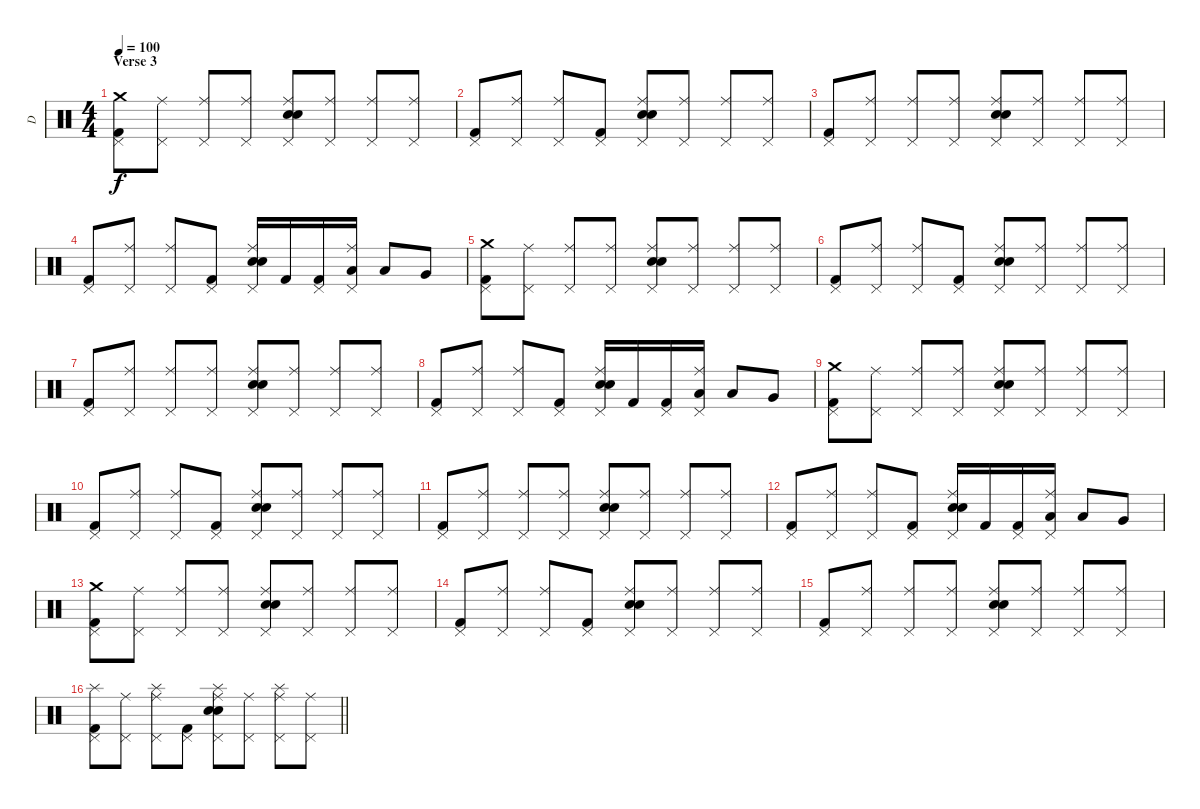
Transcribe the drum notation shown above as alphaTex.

\track ("D" "D") {instrument percussion}
\staff {score}
\articulation defaults
\ts (4 4)
\section ("" "Verse 3")
\tempo 100
\clef neutral
\ks c
("Crash medium (hit)" "Kick (hit) 2" "Pedal Hi-Hat (hit)").8{dy f} ("Ride (middle)" "Pedal Hi-Hat (hit)").8 ("Ride (middle)" "Pedal Hi-Hat (hit)").8 ("Ride (middle)" "Pedal Hi-Hat (hit)").8 ("Electric Snare (hit)" "Electric Snare (hit)" "Ride (middle)" "Pedal Hi-Hat (hit)").8 ("Ride (middle)" "Pedal Hi-Hat (hit)").8 ("Ride (middle)" "Pedal Hi-Hat (hit)").8 ("Ride (middle)" "Pedal Hi-Hat (hit)").8 |
("Kick (hit) 2" "Pedal Hi-Hat (hit)").8 ("Ride (middle)" "Pedal Hi-Hat (hit)").8 ("Ride (middle)" "Pedal Hi-Hat (hit)").8 ("Kick (hit) 2" "Pedal Hi-Hat (hit)").8 ("Electric Snare (hit)" "Electric Snare (hit)" "Ride (middle)" "Pedal Hi-Hat (hit)").8 ("Ride (middle)" "Pedal Hi-Hat (hit)").8 ("Ride (middle)" "Pedal Hi-Hat (hit)").8 ("Ride (middle)" "Pedal Hi-Hat (hit)").8 |
("Kick (hit) 2" "Pedal Hi-Hat (hit)").8 ("Ride (middle)" "Pedal Hi-Hat (hit)").8 ("Ride (middle)" "Pedal Hi-Hat (hit)").8 ("Ride (middle)" "Pedal Hi-Hat (hit)").8 ("Electric Snare (hit)" "Electric Snare (hit)" "Ride (middle)" "Pedal Hi-Hat (hit)").8 ("Ride (middle)" "Pedal Hi-Hat (hit)").8 ("Ride (middle)" "Pedal Hi-Hat (hit)").8 ("Ride (middle)" "Pedal Hi-Hat (hit)").8 |
("Kick (hit) 2" "Pedal Hi-Hat (hit)").8 ("Ride (middle)" "Pedal Hi-Hat (hit)").8 ("Ride (middle)" "Pedal Hi-Hat (hit)").8 ("Kick (hit) 2" "Pedal Hi-Hat (hit)").8 ("Electric Snare (hit)" "Electric Snare (hit)" "Ride (middle)" "Pedal Hi-Hat (hit)").16 "Kick (hit) 2".16 ("Kick (hit) 2" "Pedal Hi-Hat (hit)").16 ("Low Tom (hit)" "Ride (middle)" "Pedal Hi-Hat (hit)").16 "Low Tom (hit)".8 "Very Low Tom (hit)".8 |
("Crash medium (hit)" "Kick (hit) 2" "Pedal Hi-Hat (hit)").8 ("Ride (middle)" "Pedal Hi-Hat (hit)").8 ("Ride (middle)" "Pedal Hi-Hat (hit)").8 ("Ride (middle)" "Pedal Hi-Hat (hit)").8 ("Electric Snare (hit)" "Electric Snare (hit)" "Ride (middle)" "Pedal Hi-Hat (hit)").8 ("Ride (middle)" "Pedal Hi-Hat (hit)").8 ("Ride (middle)" "Pedal Hi-Hat (hit)").8 ("Ride (middle)" "Pedal Hi-Hat (hit)").8 |
("Kick (hit) 2" "Pedal Hi-Hat (hit)").8 ("Ride (middle)" "Pedal Hi-Hat (hit)").8 ("Ride (middle)" "Pedal Hi-Hat (hit)").8 ("Kick (hit) 2" "Pedal Hi-Hat (hit)").8 ("Electric Snare (hit)" "Electric Snare (hit)" "Ride (middle)" "Pedal Hi-Hat (hit)").8 ("Ride (middle)" "Pedal Hi-Hat (hit)").8 ("Ride (middle)" "Pedal Hi-Hat (hit)").8 ("Ride (middle)" "Pedal Hi-Hat (hit)").8 |
("Kick (hit) 2" "Pedal Hi-Hat (hit)").8 ("Ride (middle)" "Pedal Hi-Hat (hit)").8 ("Ride (middle)" "Pedal Hi-Hat (hit)").8 ("Ride (middle)" "Pedal Hi-Hat (hit)").8 ("Electric Snare (hit)" "Electric Snare (hit)" "Ride (middle)" "Pedal Hi-Hat (hit)").8 ("Ride (middle)" "Pedal Hi-Hat (hit)").8 ("Ride (middle)" "Pedal Hi-Hat (hit)").8 ("Ride (middle)" "Pedal Hi-Hat (hit)").8 |
("Kick (hit) 2" "Pedal Hi-Hat (hit)").8 ("Ride (middle)" "Pedal Hi-Hat (hit)").8 ("Ride (middle)" "Pedal Hi-Hat (hit)").8 ("Kick (hit) 2" "Pedal Hi-Hat (hit)").8 ("Electric Snare (hit)" "Electric Snare (hit)" "Ride (middle)" "Pedal Hi-Hat (hit)").16 "Kick (hit) 2".16 ("Kick (hit) 2" "Pedal Hi-Hat (hit)").16 ("Low Tom (hit)" "Ride (middle)" "Pedal Hi-Hat (hit)").16 "Low Tom (hit)".8 "Very Low Tom (hit)".8 |
("Crash medium (hit)" "Kick (hit) 2" "Pedal Hi-Hat (hit)").8 ("Ride (middle)" "Pedal Hi-Hat (hit)").8 ("Ride (middle)" "Pedal Hi-Hat (hit)").8 ("Ride (middle)" "Pedal Hi-Hat (hit)").8 ("Electric Snare (hit)" "Electric Snare (hit)" "Ride (middle)" "Pedal Hi-Hat (hit)").8 ("Ride (middle)" "Pedal Hi-Hat (hit)").8 ("Ride (middle)" "Pedal Hi-Hat (hit)").8 ("Ride (middle)" "Pedal Hi-Hat (hit)").8 |
("Kick (hit) 2" "Pedal Hi-Hat (hit)").8 ("Ride (middle)" "Pedal Hi-Hat (hit)").8 ("Ride (middle)" "Pedal Hi-Hat (hit)").8 ("Kick (hit) 2" "Pedal Hi-Hat (hit)").8 ("Electric Snare (hit)" "Electric Snare (hit)" "Ride (middle)" "Pedal Hi-Hat (hit)").8 ("Ride (middle)" "Pedal Hi-Hat (hit)").8 ("Ride (middle)" "Pedal Hi-Hat (hit)").8 ("Ride (middle)" "Pedal Hi-Hat (hit)").8 |
("Kick (hit) 2" "Pedal Hi-Hat (hit)").8 ("Ride (middle)" "Pedal Hi-Hat (hit)").8 ("Ride (middle)" "Pedal Hi-Hat (hit)").8 ("Ride (middle)" "Pedal Hi-Hat (hit)").8 ("Electric Snare (hit)" "Electric Snare (hit)" "Ride (middle)" "Pedal Hi-Hat (hit)").8 ("Ride (middle)" "Pedal Hi-Hat (hit)").8 ("Ride (middle)" "Pedal Hi-Hat (hit)").8 ("Ride (middle)" "Pedal Hi-Hat (hit)").8 |
("Kick (hit) 2" "Pedal Hi-Hat (hit)").8 ("Ride (middle)" "Pedal Hi-Hat (hit)").8 ("Ride (middle)" "Pedal Hi-Hat (hit)").8 ("Kick (hit) 2" "Pedal Hi-Hat (hit)").8 ("Electric Snare (hit)" "Electric Snare (hit)" "Ride (middle)" "Pedal Hi-Hat (hit)").16 "Kick (hit) 2".16 ("Kick (hit) 2" "Pedal Hi-Hat (hit)").16 ("Low Tom (hit)" "Ride (middle)" "Pedal Hi-Hat (hit)").16 "Low Tom (hit)".8 "Very Low Tom (hit)".8 |
("Crash medium (hit)" "Kick (hit) 2" "Pedal Hi-Hat (hit)").8 ("Ride (middle)" "Pedal Hi-Hat (hit)").8 ("Ride (middle)" "Pedal Hi-Hat (hit)").8 ("Ride (middle)" "Pedal Hi-Hat (hit)").8 ("Electric Snare (hit)" "Electric Snare (hit)" "Ride (middle)" "Pedal Hi-Hat (hit)").8 ("Ride (middle)" "Pedal Hi-Hat (hit)").8 ("Ride (middle)" "Pedal Hi-Hat (hit)").8 ("Ride (middle)" "Pedal Hi-Hat (hit)").8 |
("Kick (hit) 2" "Pedal Hi-Hat (hit)").8 ("Ride (middle)" "Pedal Hi-Hat (hit)").8 ("Ride (middle)" "Pedal Hi-Hat (hit)").8 ("Kick (hit) 2" "Pedal Hi-Hat (hit)").8 ("Electric Snare (hit)" "Electric Snare (hit)" "Ride (middle)" "Pedal Hi-Hat (hit)").8 ("Ride (middle)" "Pedal Hi-Hat (hit)").8 ("Ride (middle)" "Pedal Hi-Hat (hit)").8 ("Ride (middle)" "Pedal Hi-Hat (hit)").8 |
("Kick (hit) 2" "Pedal Hi-Hat (hit)").8 ("Ride (middle)" "Pedal Hi-Hat (hit)").8 ("Ride (middle)" "Pedal Hi-Hat (hit)").8 ("Ride (middle)" "Pedal Hi-Hat (hit)").8 ("Electric Snare (hit)" "Electric Snare (hit)" "Ride (middle)" "Pedal Hi-Hat (hit)").8 ("Ride (middle)" "Pedal Hi-Hat (hit)").8 ("Ride (middle)" "Pedal Hi-Hat (hit)").8 ("Ride (middle)" "Pedal Hi-Hat (hit)").8 |
\barLineRight lightlight
("Splash (hit)" "Kick (hit) 2" "Pedal Hi-Hat (hit)").8 ("Ride (middle)" "Pedal Hi-Hat (hit)").8 ("Splash (hit)" "Ride (middle)" "Pedal Hi-Hat (hit)").8 ("Kick (hit) 2" "Pedal Hi-Hat (hit)").8 ("Splash (hit)" "Electric Snare (hit)" "Electric Snare (hit)" "Ride (middle)" "Pedal Hi-Hat (hit)").8 ("Ride (middle)" "Pedal Hi-Hat (hit)").8 ("Splash (hit)" "Ride (middle)" "Pedal Hi-Hat (hit)").8 ("Ride (middle)" "Pedal Hi-Hat (hit)").8
